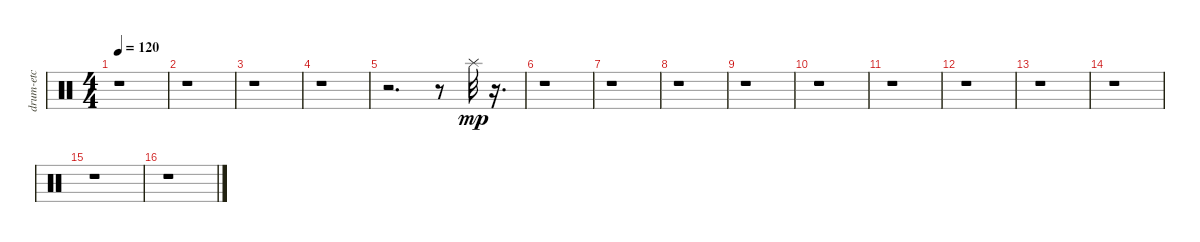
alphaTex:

\track ("drum-etc" "drum-etc") {instrument percussion}
\staff {score}
\articulation defaults
\ts (4 4)
\tempo 120
\clef neutral
\ks c
r.1{dy mp} |
r.1 |
r.1 |
r.1 |
r.2{d} r.8 "Splash (hit)".32 r.16{d} |
r.1 |
r.1 |
r.1 |
r.1 |
r.1 |
r.1 |
r.1 |
r.1 |
r.1 |
r.1 |
r.1
